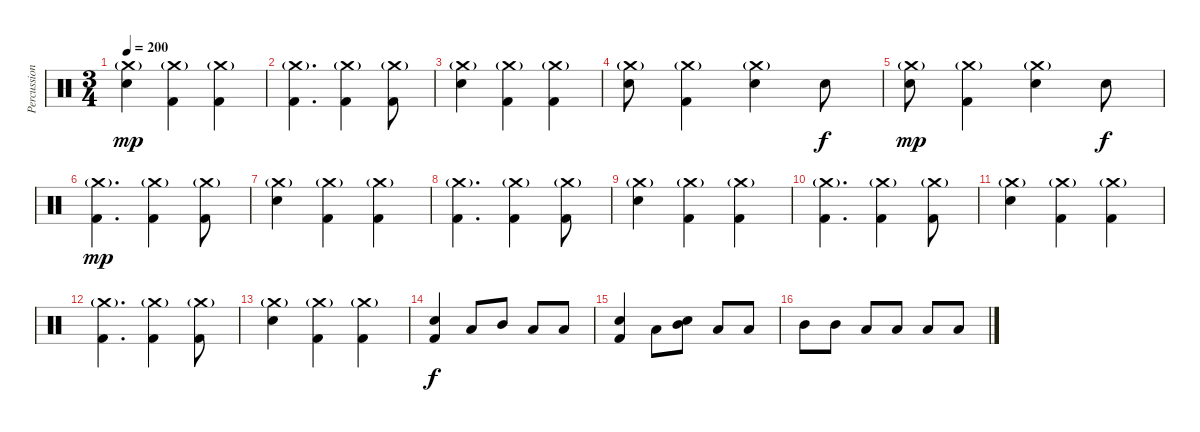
\track ("Percussions" "Percussion") {instrument percussion}
\staff {score}
\articulation defaults
\ts (3 4)
\tempo 200
\clef neutral
\ks c
("Crash medium (hit)"{g} "Electric Snare (hit)").4{dy mp} ("Crash medium (hit)"{g} "Kick (hit) 2").4 ("Crash medium (hit)"{g} "Kick (hit) 2").4 |
("Crash medium (hit)"{g} "Kick (hit) 2").4{d} ("Crash medium (hit)"{g} "Kick (hit) 2").4 ("Crash medium (hit)"{g} "Kick (hit) 2").8 |
("Crash medium (hit)"{g} "Electric Snare (hit)").4 ("Crash medium (hit)"{g} "Kick (hit) 2").4 ("Crash medium (hit)"{g} "Kick (hit) 2").4 |
("Crash medium (hit)"{g} "Electric Snare (hit)").8 ("Crash medium (hit)"{g} "Kick (hit) 2").4 ("Crash medium (hit)"{g} "Electric Snare (hit)").4 "Electric Snare (hit)".8{dy f} |
("Crash medium (hit)"{g} "Electric Snare (hit)").8{dy mp} ("Crash medium (hit)"{g} "Kick (hit) 2").4 ("Crash medium (hit)"{g} "Electric Snare (hit)").4 "Electric Snare (hit)".8{dy f} |
("Crash medium (hit)"{g} "Kick (hit) 2").4{d dy mp} ("Crash medium (hit)"{g} "Kick (hit) 2").4 ("Crash medium (hit)"{g} "Kick (hit) 2").8 |
("Crash medium (hit)"{g} "Electric Snare (hit)").4 ("Crash medium (hit)"{g} "Kick (hit) 2").4 ("Crash medium (hit)"{g} "Kick (hit) 2").4 |
("Crash medium (hit)"{g} "Kick (hit) 2").4{d} ("Crash medium (hit)"{g} "Kick (hit) 2").4 ("Crash medium (hit)"{g} "Kick (hit) 2").8 |
("Crash medium (hit)"{g} "Electric Snare (hit)").4 ("Crash medium (hit)"{g} "Kick (hit) 2").4 ("Crash medium (hit)"{g} "Kick (hit) 2").4 |
("Crash medium (hit)"{g} "Kick (hit) 2").4{d} ("Crash medium (hit)"{g} "Kick (hit) 2").4 ("Crash medium (hit)"{g} "Kick (hit) 2").8 |
("Crash medium (hit)"{g} "Electric Snare (hit)").4 ("Crash medium (hit)"{g} "Kick (hit) 2").4 ("Crash medium (hit)"{g} "Kick (hit) 2").4 |
("Crash medium (hit)"{g} "Kick (hit) 2").4{d} ("Crash medium (hit)"{g} "Kick (hit) 2").4 ("Crash medium (hit)"{g} "Kick (hit) 2").8 |
("Crash medium (hit)"{g} "Electric Snare (hit)").4 ("Crash medium (hit)"{g} "Kick (hit) 2").4 ("Crash medium (hit)"{g} "Kick (hit) 2").4 |
("Electric Snare (hit)" "Kick (hit) 2").4{dy f} "Low Tom (hit)".8 "Mid Tom (hit)".8 "Low Tom (hit)".8 "Low Floor Tom (hit)".8 |
("Electric Snare (hit)" "Kick (hit) 2").4 "Low Tom (hit)".8 ("Mid Tom (hit)" "Electric Snare (hit)").8 "Low Tom (hit)".8 "Low Floor Tom (hit)".8 |
"Mid Tom (hit)".8 "Mid Tom (hit)".8 "Low Tom (hit)".8 "Low Tom (hit)".8 "Low Floor Tom (hit)".8 "Low Floor Tom (hit)".8
